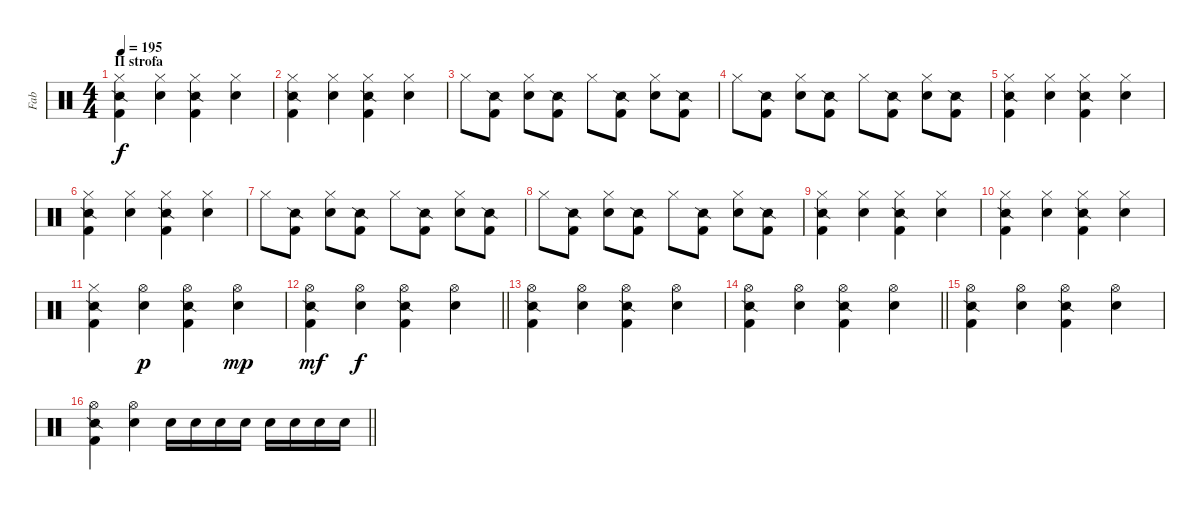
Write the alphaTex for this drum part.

\track ("Fab" "Fab") {instrument percussion}
\staff {score}
\articulation defaults
\ts (4 4)
\section ("" "II strofa")
\tempo 195
\clef neutral
\ks c
("Hi-Hat (closed)" "Snare (side stick) 2" "Kick (hit) 2").4{dy f} ("Hi-Hat (closed)" "Electric Snare (hit)").4 ("Hi-Hat (closed)" "Snare (side stick) 2" "Kick (hit) 2").4 ("Hi-Hat (closed)" "Electric Snare (hit)").4 |
("Hi-Hat (closed)" "Snare (side stick) 2" "Kick (hit) 2").4 ("Hi-Hat (closed)" "Electric Snare (hit)").4 ("Hi-Hat (closed)" "Snare (side stick) 2" "Kick (hit) 2").4 ("Hi-Hat (closed)" "Electric Snare (hit)").4 |
"Hi-Hat (closed)".8 ("Kick (hit) 2" "Snare (side stick) 2").8 ("Hi-Hat (closed)" "Electric Snare (hit)").8 ("Kick (hit) 2" "Snare (side stick) 2").8 "Hi-Hat (closed)".8 ("Kick (hit) 2" "Snare (side stick) 2").8 ("Hi-Hat (closed)" "Electric Snare (hit)").8 ("Kick (hit) 2" "Snare (side stick) 2").8 |
"Hi-Hat (closed)".8 ("Snare (side stick) 2" "Kick (hit) 2").8 ("Hi-Hat (closed)" "Electric Snare (hit)").8 ("Snare (side stick) 2" "Kick (hit) 2").8 "Hi-Hat (closed)".8 ("Snare (side stick) 2" "Kick (hit) 2").8 ("Hi-Hat (closed)" "Electric Snare (hit)").8 ("Snare (side stick) 2" "Kick (hit) 2").8 |
("Hi-Hat (closed)" "Snare (side stick) 2" "Kick (hit) 2").4 ("Hi-Hat (closed)" "Electric Snare (hit)").4 ("Hi-Hat (closed)" "Snare (side stick) 2" "Kick (hit) 2").4 ("Hi-Hat (closed)" "Electric Snare (hit)").4 |
("Hi-Hat (closed)" "Snare (side stick) 2" "Kick (hit) 2").4 ("Hi-Hat (closed)" "Electric Snare (hit)").4 ("Hi-Hat (closed)" "Snare (side stick) 2" "Kick (hit) 2").4 ("Hi-Hat (closed)" "Electric Snare (hit)").4 |
"Hi-Hat (closed)".8 ("Kick (hit) 2" "Snare (side stick) 2").8 ("Hi-Hat (closed)" "Electric Snare (hit)").8 ("Kick (hit) 2" "Snare (side stick) 2").8 "Hi-Hat (closed)".8 ("Kick (hit) 2" "Snare (side stick) 2").8 ("Hi-Hat (closed)" "Electric Snare (hit)").8 ("Kick (hit) 2" "Snare (side stick) 2").8 |
"Hi-Hat (closed)".8 ("Snare (side stick) 2" "Kick (hit) 2").8 ("Hi-Hat (closed)" "Electric Snare (hit)").8 ("Snare (side stick) 2" "Kick (hit) 2").8 "Hi-Hat (closed)".8 ("Snare (side stick) 2" "Kick (hit) 2").8 ("Hi-Hat (closed)" "Electric Snare (hit)").8 ("Snare (side stick) 2" "Kick (hit) 2").8 |
("Hi-Hat (closed)" "Snare (side stick) 2" "Kick (hit) 2").4 ("Hi-Hat (closed)" "Electric Snare (hit)").4 ("Hi-Hat (closed)" "Snare (side stick) 2" "Kick (hit) 2").4 ("Hi-Hat (closed)" "Electric Snare (hit)").4 |
("Hi-Hat (closed)" "Snare (side stick) 2" "Kick (hit) 2").4 ("Hi-Hat (closed)" "Electric Snare (hit)").4 ("Hi-Hat (closed)" "Snare (side stick) 2" "Kick (hit) 2").4 ("Hi-Hat (closed)" "Electric Snare (hit)").4 |
("Hi-Hat (closed)" "Snare (side stick) 2" "Kick (hit) 2").4 ("Hi-Hat (open)" "Electric Snare (hit)").4{dy p} ("Hi-Hat (open)" "Snare (side stick) 2" "Kick (hit) 2").4 ("Hi-Hat (open)" "Electric Snare (hit)").4{dy mp} |
\barLineRight lightlight
("Hi-Hat (open)" "Snare (side stick) 2" "Kick (hit) 2").4{dy mf} ("Hi-Hat (open)" "Electric Snare (hit)").4{dy f} ("Hi-Hat (open)" "Snare (side stick) 2" "Kick (hit) 2").4 ("Hi-Hat (open)" "Electric Snare (hit)").4 |
("Hi-Hat (open)" "Snare (side stick) 2" "Kick (hit) 2").4 ("Hi-Hat (open)" "Electric Snare (hit)").4 ("Hi-Hat (open)" "Snare (side stick) 2" "Kick (hit) 2").4 ("Hi-Hat (open)" "Electric Snare (hit)").4 |
\barLineRight lightlight
("Hi-Hat (open)" "Snare (side stick) 2" "Kick (hit) 2").4 ("Hi-Hat (open)" "Electric Snare (hit)").4 ("Hi-Hat (open)" "Snare (side stick) 2" "Kick (hit) 2").4 ("Hi-Hat (open)" "Electric Snare (hit)").4 |
("Hi-Hat (open)" "Snare (side stick) 2" "Kick (hit) 2").4 ("Hi-Hat (open)" "Electric Snare (hit)").4 ("Hi-Hat (open)" "Snare (side stick) 2" "Kick (hit) 2").4 ("Hi-Hat (open)" "Electric Snare (hit)").4 |
\barLineRight lightlight
("Hi-Hat (open)" "Snare (side stick) 2" "Kick (hit) 2").4 ("Hi-Hat (open)" "Electric Snare (hit)").4 "Electric Snare (hit)".16 "Electric Snare (hit)".16 "Electric Snare (hit)".16 "Electric Snare (hit)".16 "Electric Snare (hit)".16 "Electric Snare (hit)".16 "Electric Snare (hit)".16 "Electric Snare (hit)".16
